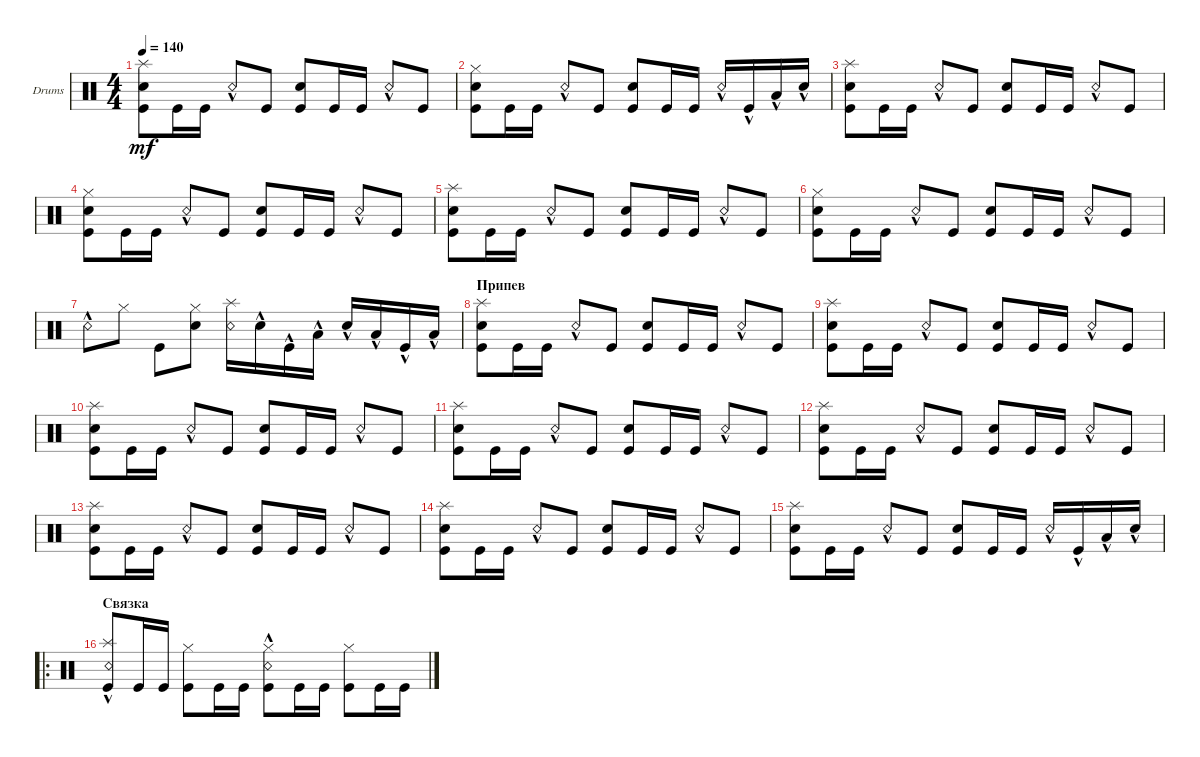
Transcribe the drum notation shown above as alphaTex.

\bracketExtendMode groupsimilarinstruments
\firstSystemTrackNameOrientation horizontal
\otherSystemsTrackNameOrientation horizontal
\track ("БАРАБАНЫ" "Drums") {solo instrument percussion}
\staff {score}
\articulation defaults
\ts (4 4)
\tempo 140
\clef neutral
\ks c
("Kick (hit)" "Snare (hit) 2" "Splash (hit)").8{dy mf} "Kick (hit)".16 "Kick (hit)".16 "Snare (rim shot)"{hac}.8 "Kick (hit)".8 ("Kick (hit)" "Snare (hit) 2").8 "Kick (hit)".16 "Kick (hit)".16 "Snare (rim shot)"{hac}.8 "Kick (hit)".8 |
("Kick (hit)" "Snare (hit) 2" "Hi-Hat (closed)").8 "Kick (hit)".16 "Kick (hit)".16 "Snare (rim shot)"{hac}.8 "Kick (hit)".8 ("Kick (hit)" "Snare (hit) 2").8 "Kick (hit)".16 "Kick (hit)".16 "Snare (rim shot)"{hac}.16 "Kick (hit)"{hac}.16 "Low Tom (hit)"{hac}.16 "Snare (hit) 2"{hac}.16 |
("Kick (hit)" "Snare (hit) 2" "Splash (hit)").8 "Kick (hit)".16 "Kick (hit)".16 "Snare (rim shot)"{hac}.8 "Kick (hit)".8 ("Kick (hit)" "Snare (hit) 2").8 "Kick (hit)".16 "Kick (hit)".16 "Snare (rim shot)"{hac}.8 "Kick (hit)".8 |
("Kick (hit)" "Snare (hit) 2" "Hi-Hat (closed)").8 "Kick (hit)".16 "Kick (hit)".16 "Snare (rim shot)"{hac}.8 "Kick (hit)".8 ("Kick (hit)" "Snare (hit) 2").8 "Kick (hit)".16 "Kick (hit)".16 "Snare (rim shot)"{hac}.8 "Kick (hit)".8 |
("Kick (hit)" "Snare (hit) 2" "Splash (hit)").8 "Kick (hit)".16 "Kick (hit)".16 "Snare (rim shot)"{hac}.8 "Kick (hit)".8 ("Kick (hit)" "Snare (hit) 2").8 "Kick (hit)".16 "Kick (hit)".16 "Snare (rim shot)"{hac}.8 "Kick (hit)".8 |
("Kick (hit)" "Snare (hit) 2" "Hi-Hat (closed)").8 "Kick (hit)".16 "Kick (hit)".16 "Snare (rim shot)"{hac}.8 "Kick (hit)".8 ("Kick (hit)" "Snare (hit) 2").8 "Kick (hit)".16 "Kick (hit)".16 "Snare (rim shot)"{hac}.8 "Kick (hit)".8 |
"Snare (rim shot)"{hac}.8 "Hi-Hat (closed)".8 "Kick (hit)".8 ("Hi-Hat (closed)" "Snare (hit) 2").8 ("Snare (rim shot)" "Splash (hit)").16 "Snare (hit) 2"{hac}.16 "Kick (hit)"{hac}.16 "Low Tom (hit)"{hac}.16 "Snare (hit) 2"{hac}.16 "Low Tom (hit)"{hac}.16 "Kick (hit)"{hac}.16 "Low Tom (hit)"{hac}.16 |
\section ("" "Припев")
("Kick (hit)" "Snare (hit) 2" "Splash (hit)").8 "Kick (hit)".16 "Kick (hit)".16 "Snare (rim shot)"{hac}.8 "Kick (hit)".8 ("Kick (hit)" "Snare (hit) 2").8 "Kick (hit)".16 "Kick (hit)".16 "Snare (rim shot)"{hac}.8 "Kick (hit)".8 |
("Kick (hit)" "Snare (hit) 2" "Splash (hit)").8 "Kick (hit)".16 "Kick (hit)".16 "Snare (rim shot)"{hac}.8 "Kick (hit)".8 ("Kick (hit)" "Snare (hit) 2").8 "Kick (hit)".16 "Kick (hit)".16 "Snare (rim shot)"{hac}.8 "Kick (hit)".8 |
("Kick (hit)" "Snare (hit) 2" "Splash (hit)").8 "Kick (hit)".16 "Kick (hit)".16 "Snare (rim shot)"{hac}.8 "Kick (hit)".8 ("Kick (hit)" "Snare (hit) 2").8 "Kick (hit)".16 "Kick (hit)".16 "Snare (rim shot)"{hac}.8 "Kick (hit)".8 |
("Kick (hit)" "Snare (hit) 2" "Splash (hit)").8 "Kick (hit)".16 "Kick (hit)".16 "Snare (rim shot)"{hac}.8 "Kick (hit)".8 ("Kick (hit)" "Snare (hit) 2").8 "Kick (hit)".16 "Kick (hit)".16 "Snare (rim shot)"{hac}.8 "Kick (hit)".8 |
("Kick (hit)" "Snare (hit) 2" "Splash (hit)").8 "Kick (hit)".16 "Kick (hit)".16 "Snare (rim shot)"{hac}.8 "Kick (hit)".8 ("Kick (hit)" "Snare (hit) 2").8 "Kick (hit)".16 "Kick (hit)".16 "Snare (rim shot)"{hac}.8 "Kick (hit)".8 |
("Kick (hit)" "Snare (hit) 2" "Splash (hit)").8 "Kick (hit)".16 "Kick (hit)".16 "Snare (rim shot)"{hac}.8 "Kick (hit)".8 ("Kick (hit)" "Snare (hit) 2").8 "Kick (hit)".16 "Kick (hit)".16 "Snare (rim shot)"{hac}.8 "Kick (hit)".8 |
("Kick (hit)" "Snare (hit) 2" "Splash (hit)").8 "Kick (hit)".16 "Kick (hit)".16 "Snare (rim shot)"{hac}.8 "Kick (hit)".8 ("Kick (hit)" "Snare (hit) 2").8 "Kick (hit)".16 "Kick (hit)".16 "Snare (rim shot)"{hac}.8 "Kick (hit)".8 |
("Kick (hit)" "Snare (hit) 2" "Splash (hit)").8 "Kick (hit)".16 "Kick (hit)".16 "Snare (rim shot)"{hac}.8 "Kick (hit)".8 ("Kick (hit)" "Snare (hit) 2").8 "Kick (hit)".16 "Kick (hit)".16 "Snare (rim shot)"{hac}.16 "Kick (hit)"{hac}.16 "Low Tom (hit)"{hac}.16 "Snare (hit) 2"{hac}.16 |
\ro
\section ("" "Связка")
("Kick (hit)" "Snare (rim shot)"{hac} "Splash (hit)").8 "Kick (hit)".16 "Kick (hit)".16 ("Kick (hit)" "Hi-Hat (closed)").8 "Kick (hit)".16 "Kick (hit)".16 ("Kick (hit)" "Snare (rim shot)"{hac} "Hi-Hat (closed)").8 "Kick (hit)".16 "Kick (hit)".16 ("Kick (hit)" "Hi-Hat (closed)").8 "Kick (hit)".16 "Kick (hit)".16
